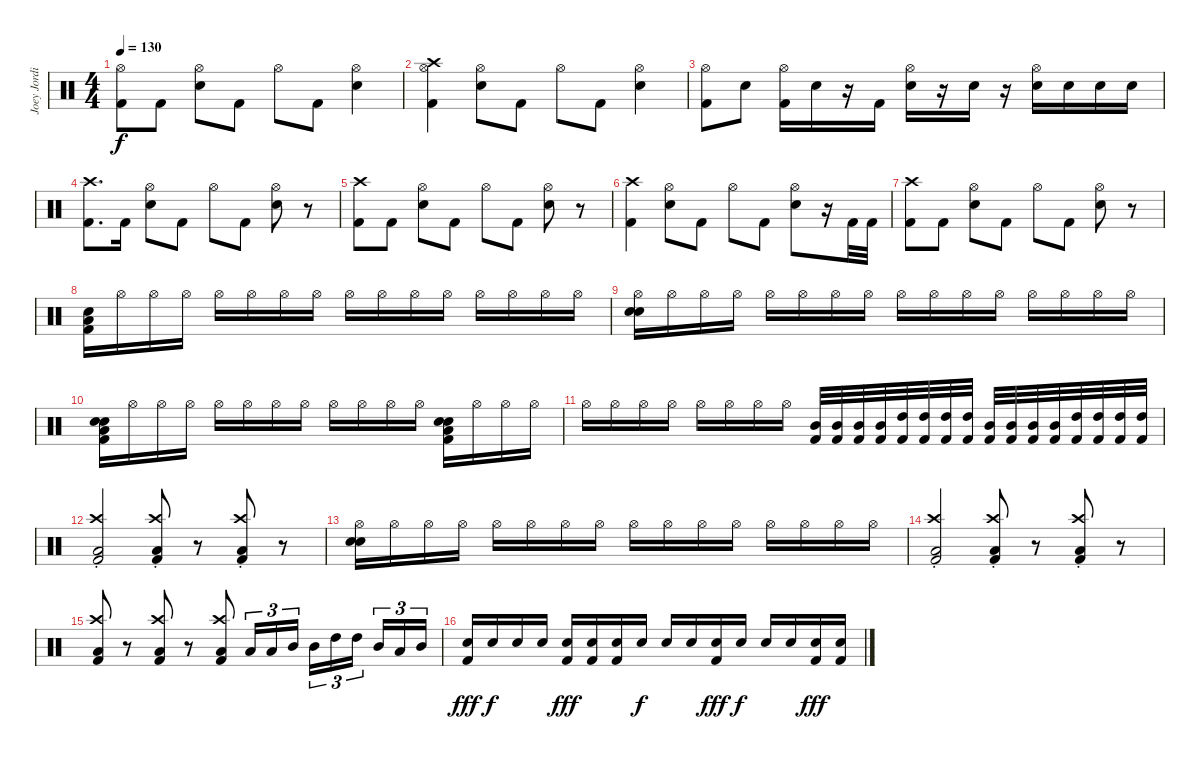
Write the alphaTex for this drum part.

\track ("Joey Jordison" "Joey Jordi") {instrument percussion}
\staff {score}
\articulation defaults
\ts (4 4)
\tempo 130
\clef neutral
\ks c
("Hi-Hat (open)" "Kick (hit) 2").8{dy f} "Kick (hit) 2".8 ("Hi-Hat (open)" "Electric Snare (hit)").8 "Kick (hit) 2".8 "Hi-Hat (open)".8 "Kick (hit) 2".8 ("Hi-Hat (open)" "Electric Snare (hit)").4 |
("Hi-Hat (open)" "Crash high (hit)" "Kick (hit) 2").4 ("Hi-Hat (open)" "Electric Snare (hit)").8 "Kick (hit) 2".8 "Hi-Hat (open)".8 "Kick (hit) 2".8 ("Hi-Hat (open)" "Electric Snare (hit)").4 |
("Hi-Hat (open)" "Kick (hit) 2").8 "Electric Snare (hit)".8 ("Hi-Hat (open)" "Kick (hit) 2").16 "Electric Snare (hit)".16 r.16 "Kick (hit) 2".16 ("Hi-Hat (open)" "Electric Snare (hit)").16 r.16 "Electric Snare (hit)".16 r.16 ("Hi-Hat (open)" "Electric Snare (hit)").16 "Electric Snare (hit)".16 "Electric Snare (hit)".16 "Electric Snare (hit)".16 |
("Crash high (hit)" "Kick (hit) 2").8{d} "Kick (hit) 2".16 ("Hi-Hat (open)" "Electric Snare (hit)").8 "Kick (hit) 2".8 "Hi-Hat (open)".8 "Kick (hit) 2".8 ("Hi-Hat (open)" "Electric Snare (hit)").8 r.8 |
("Crash high (hit)" "Kick (hit) 2").8 "Kick (hit) 2".8 ("Hi-Hat (open)" "Electric Snare (hit)").8 "Kick (hit) 2".8 "Hi-Hat (open)".8 "Kick (hit) 2".8 ("Hi-Hat (open)" "Electric Snare (hit)").8 r.8 |
("Crash high (hit)" "Kick (hit) 2").4 ("Hi-Hat (open)" "Electric Snare (hit)").8 "Kick (hit) 2".8 "Hi-Hat (open)".8 "Kick (hit) 2".8 ("Hi-Hat (open)" "Electric Snare (hit)").8 r.16 "Kick (hit) 2".32 "Kick (hit) 2".32 |
("Crash high (hit)" "Kick (hit) 2").8 "Kick (hit) 2".8 ("Hi-Hat (open)" "Electric Snare (hit)").8 "Kick (hit) 2".8 "Hi-Hat (open)".8 "Kick (hit) 2".8 ("Hi-Hat (open)" "Electric Snare (hit)").8 r.8 |
("Snare (hit)" "Low Floor Tom (hit)" "Kick (hit) 2").16 "Hi-Hat (open)".16 "Hi-Hat (open)".16 "Hi-Hat (open)".16 "Hi-Hat (open)".16 "Hi-Hat (open)".16 "Hi-Hat (open)".16 "Hi-Hat (open)".16 "Hi-Hat (open)".16 "Hi-Hat (open)".16 "Hi-Hat (open)".16 "Hi-Hat (open)".16 "Hi-Hat (open)".16 "Hi-Hat (open)".16 "Hi-Hat (open)".16 "Hi-Hat (open)".16 |
("Hi-Hat (open)" "Snare (hit)" "Snare (hit)").16 "Hi-Hat (open)".16 "Hi-Hat (open)".16 "Hi-Hat (open)".16 "Hi-Hat (open)".16 "Hi-Hat (open)".16 "Hi-Hat (open)".16 "Hi-Hat (open)".16 "Hi-Hat (open)".16 "Hi-Hat (open)".16 "Hi-Hat (open)".16 "Hi-Hat (open)".16 "Hi-Hat (open)".16 "Hi-Hat (open)".16 "Hi-Hat (open)".16 "Hi-Hat (open)".16 |
("Snare (hit)" "Electric Snare (hit)" "Low Floor Tom (hit)" "Kick (hit) 2").16 "Hi-Hat (open)".16 "Hi-Hat (open)".16 "Hi-Hat (open)".16 "Hi-Hat (open)".16 "Hi-Hat (open)".16 "Hi-Hat (open)".16 "Hi-Hat (open)".16 "Hi-Hat (open)".16 "Hi-Hat (open)".16 "Hi-Hat (open)".16 "Hi-Hat (open)".16 ("Snare (hit)" "Electric Snare (hit)" "Low Floor Tom (hit)" "Kick (hit) 2").16 "Hi-Hat (open)".16 "Hi-Hat (open)".16 "Hi-Hat (open)".16 |
"Hi-Hat (open)".16 "Hi-Hat (open)".16 "Hi-Hat (open)".16 "Hi-Hat (open)".16 "Hi-Hat (open)".16 "Hi-Hat (open)".16 "Hi-Hat (open)".16 "Hi-Hat (open)".16 ("Mid Tom (hit)" "Kick (hit) 2").32 ("Mid Tom (hit)" "Kick (hit) 2").32 ("Mid Tom (hit)" "Kick (hit) 2").32 ("Mid Tom (hit)" "Kick (hit) 2").32 ("High Tom (hit)" "Kick (hit) 2").32 ("High Tom (hit)" "Kick (hit) 2").32 ("High Tom (hit)" "Kick (hit) 2").32 ("High Tom (hit)" "Kick (hit) 2").32 ("Mid Tom (hit)" "Kick (hit) 2").32 ("Mid Tom (hit)" "Kick (hit) 2").32 ("Mid Tom (hit)" "Kick (hit) 2").32 ("Mid Tom (hit)" "Kick (hit) 2").32 ("High Tom (hit)" "Kick (hit) 2").32 ("High Tom (hit)" "Kick (hit) 2").32 ("High Tom (hit)" "Kick (hit) 2").32 ("High Tom (hit)" "Kick (hit) 2").32 |
("Crash high (hit)"{st} "Low Floor Tom (hit)" "Kick (hit) 2").2 ("Crash high (hit)"{st} "Kick (hit) 2" "Low Floor Tom (hit)").8 r.8 ("Crash high (hit)"{st} "Kick (hit) 2" "Low Floor Tom (hit)").8 r.8 |
("Hi-Hat (open)" "Snare (hit)" "Snare (hit)").16 "Hi-Hat (open)".16 "Hi-Hat (open)".16 "Hi-Hat (open)".16 "Hi-Hat (open)".16 "Hi-Hat (open)".16 "Hi-Hat (open)".16 "Hi-Hat (open)".16 "Hi-Hat (open)".16 "Hi-Hat (open)".16 "Hi-Hat (open)".16 "Hi-Hat (open)".16 "Hi-Hat (open)".16 "Hi-Hat (open)".16 "Hi-Hat (open)".16 "Hi-Hat (open)".16 |
("Crash high (hit)"{st} "Low Floor Tom (hit)" "Kick (hit) 2").2 ("Crash high (hit)"{st} "Kick (hit) 2" "Low Floor Tom (hit)").8 r.8 ("Crash high (hit)"{st} "Kick (hit) 2" "Low Floor Tom (hit)").8 r.8 |
("Crash high (hit)" "Kick (hit) 2" "Low Floor Tom (hit)").8 r.8 ("Crash high (hit)" "Kick (hit) 2" "Low Floor Tom (hit)").8 r.8 ("Crash high (hit)" "Kick (hit) 2" "Low Floor Tom (hit)").8 "Low Tom (hit)".16{tu (3 2)} "Low Tom (hit)".16{tu (3 2)} "Mid Tom (hit)".16{tu (3 2)} "Mid Tom (hit)".16{tu (3 2)} "High Tom (hit)".16{tu (3 2)} "High Tom (hit)".16{tu (3 2) beam splitsecondary} "Mid Tom (hit)".16{tu (3 2)} "Low Tom (hit)".16{tu (3 2)} "Mid Tom (hit)".16{tu (3 2)} |
("Snare (hit)" "Kick (hit) 2").16{dy fff} "Snare (hit)".16{dy f} "Snare (hit)".16 "Snare (hit)".16 ("Snare (hit)" "Kick (hit) 2").16{dy fff} ("Snare (hit)" "Kick (hit) 2").16 ("Snare (hit)" "Kick (hit) 2").16 "Snare (hit)".16{dy f} "Snare (hit)".16 "Snare (hit)".16 ("Snare (hit)" "Kick (hit) 2").16{dy fff} "Snare (hit)".16{dy f} "Snare (hit)".16 "Snare (hit)".16 ("Snare (hit)" "Kick (hit) 2").16{dy fff} ("Snare (hit)" "Kick (hit) 2").16
